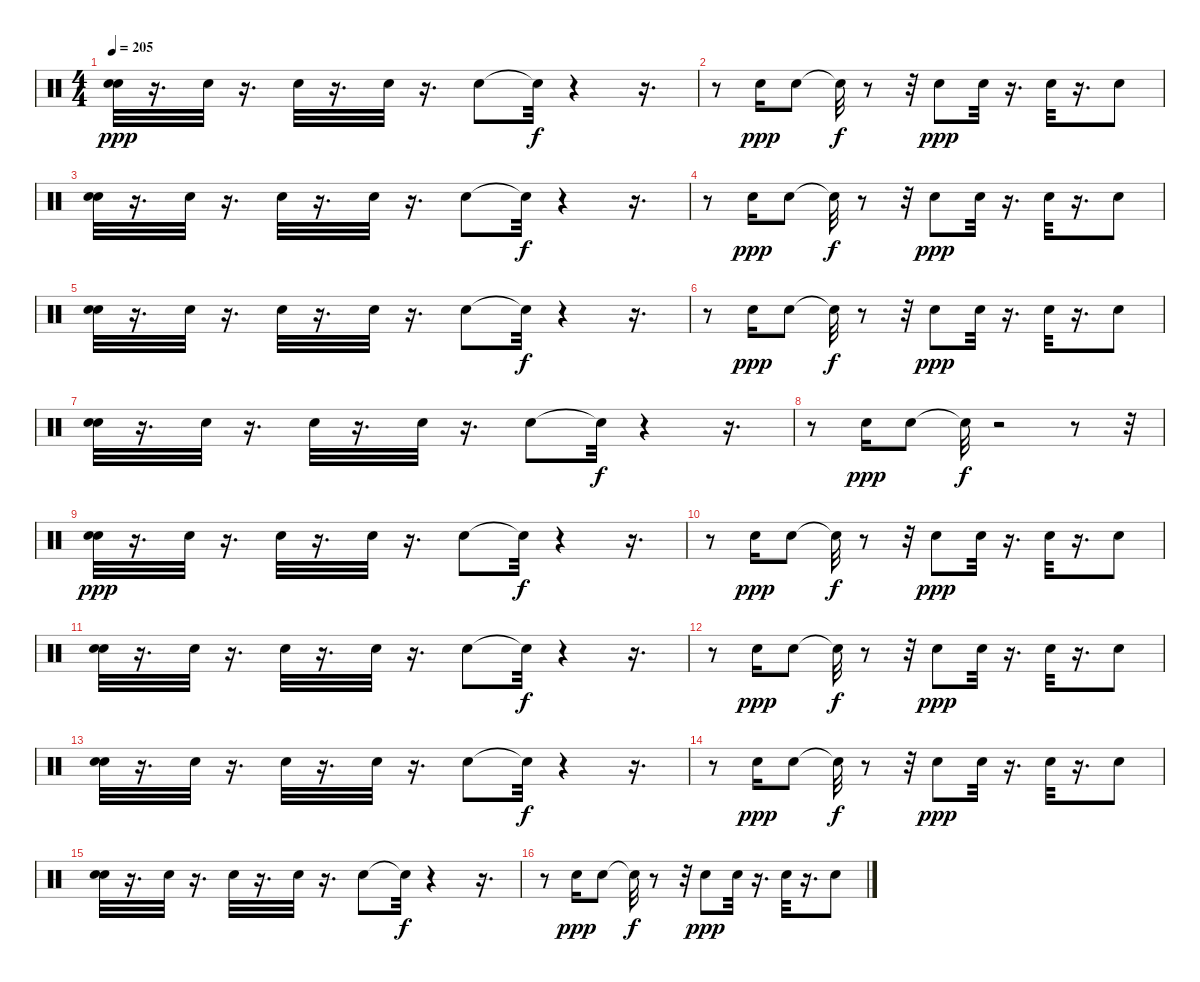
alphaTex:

\track "" {instrument percussion}
\staff {score}
\articulation defaults
\ts (4 4)
\tempo 205
\clef neutral
\ks c
("Electric Snare (hit)" "Electric Snare (hit)").32{dy ppp} r.16{d} "Electric Snare (hit)".32 r.16{d} "Electric Snare (hit)".32 r.16{d} "Electric Snare (hit)".32 r.16{d} "Electric Snare (hit)".8 "Snare (hit)"{t}.32{dy f} r.4 r.16{d} |
r.8 "Electric Snare (hit)".16{dy ppp} "Electric Snare (hit)".8 "Snare (hit)"{t}.32{dy f} r.8 r.32 "Electric Snare (hit)".8{dy ppp} "Electric Snare (hit)".32 r.16{d} "Electric Snare (hit)".32 r.16{d} "Electric Snare (hit)".8 |
("Electric Snare (hit)" "Electric Snare (hit)").32 r.16{d} "Electric Snare (hit)".32 r.16{d} "Electric Snare (hit)".32 r.16{d} "Electric Snare (hit)".32 r.16{d} "Electric Snare (hit)".8 "Snare (hit)"{t}.32{dy f} r.4 r.16{d} |
r.8 "Electric Snare (hit)".16{dy ppp} "Electric Snare (hit)".8 "Snare (hit)"{t}.32{dy f} r.8 r.32 "Electric Snare (hit)".8{dy ppp} "Electric Snare (hit)".32 r.16{d} "Electric Snare (hit)".32 r.16{d} "Electric Snare (hit)".8 |
("Electric Snare (hit)" "Electric Snare (hit)").32 r.16{d} "Electric Snare (hit)".32 r.16{d} "Electric Snare (hit)".32 r.16{d} "Electric Snare (hit)".32 r.16{d} "Electric Snare (hit)".8 "Snare (hit)"{t}.32{dy f} r.4 r.16{d} |
r.8 "Electric Snare (hit)".16{dy ppp} "Electric Snare (hit)".8 "Snare (hit)"{t}.32{dy f} r.8 r.32 "Electric Snare (hit)".8{dy ppp} "Electric Snare (hit)".32 r.16{d} "Electric Snare (hit)".32 r.16{d} "Electric Snare (hit)".8 |
("Electric Snare (hit)" "Electric Snare (hit)").32 r.16{d} "Electric Snare (hit)".32 r.16{d} "Electric Snare (hit)".32 r.16{d} "Electric Snare (hit)".32 r.16{d} "Electric Snare (hit)".8 "Snare (hit)"{t}.32{dy f} r.4 r.16{d} |
r.8 "Electric Snare (hit)".16{dy ppp} "Electric Snare (hit)".8 "Snare (hit)"{t}.32{dy f} r.2 r.8 r.32 |
("Electric Snare (hit)" "Electric Snare (hit)").32{dy ppp} r.16{d} "Electric Snare (hit)".32 r.16{d} "Electric Snare (hit)".32 r.16{d} "Electric Snare (hit)".32 r.16{d} "Electric Snare (hit)".8 "Snare (hit)"{t}.32{dy f} r.4 r.16{d} |
r.8 "Electric Snare (hit)".16{dy ppp} "Electric Snare (hit)".8 "Snare (hit)"{t}.32{dy f} r.8 r.32 "Electric Snare (hit)".8{dy ppp} "Electric Snare (hit)".32 r.16{d} "Electric Snare (hit)".32 r.16{d} "Electric Snare (hit)".8 |
("Electric Snare (hit)" "Electric Snare (hit)").32 r.16{d} "Electric Snare (hit)".32 r.16{d} "Electric Snare (hit)".32 r.16{d} "Electric Snare (hit)".32 r.16{d} "Electric Snare (hit)".8 "Snare (hit)"{t}.32{dy f} r.4 r.16{d} |
r.8 "Electric Snare (hit)".16{dy ppp} "Electric Snare (hit)".8 "Snare (hit)"{t}.32{dy f} r.8 r.32 "Electric Snare (hit)".8{dy ppp} "Electric Snare (hit)".32 r.16{d} "Electric Snare (hit)".32 r.16{d} "Electric Snare (hit)".8 |
("Electric Snare (hit)" "Electric Snare (hit)").32 r.16{d} "Electric Snare (hit)".32 r.16{d} "Electric Snare (hit)".32 r.16{d} "Electric Snare (hit)".32 r.16{d} "Electric Snare (hit)".8 "Snare (hit)"{t}.32{dy f} r.4 r.16{d} |
r.8 "Electric Snare (hit)".16{dy ppp} "Electric Snare (hit)".8 "Snare (hit)"{t}.32{dy f} r.8 r.32 "Electric Snare (hit)".8{dy ppp} "Electric Snare (hit)".32 r.16{d} "Electric Snare (hit)".32 r.16{d} "Electric Snare (hit)".8 |
("Electric Snare (hit)" "Electric Snare (hit)").32 r.16{d} "Electric Snare (hit)".32 r.16{d} "Electric Snare (hit)".32 r.16{d} "Electric Snare (hit)".32 r.16{d} "Electric Snare (hit)".8 "Snare (hit)"{t}.32{dy f} r.4 r.16{d} |
r.8 "Electric Snare (hit)".16{dy ppp} "Electric Snare (hit)".8 "Snare (hit)"{t}.32{dy f} r.8 r.32 "Electric Snare (hit)".8{dy ppp} "Electric Snare (hit)".32 r.16{d} "Electric Snare (hit)".32 r.16{d} "Electric Snare (hit)".8
